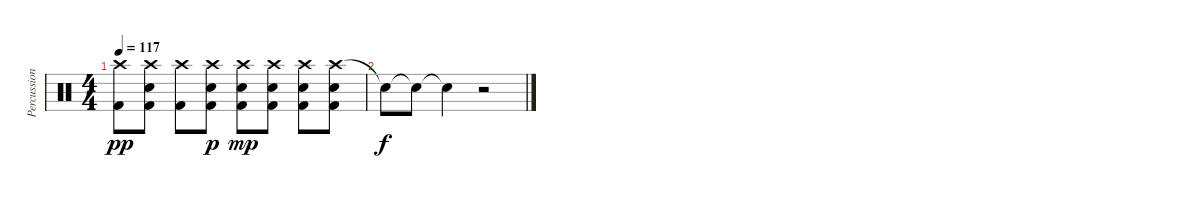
\track ("Percussioni" "Percussion") {instrument percussion}
\staff {score}
\articulation defaults
\ts (4 4)
\tempo 117
\clef neutral
\ks c
("Crash high (hit)" "Kick (hit) 2").8{dy pp} ("Crash high (hit)" "Electric Snare (hit)" "Kick (hit) 2").8 ("Crash high (hit)" "Kick (hit) 2").8 ("Crash high (hit)" "Electric Snare (hit)" "Kick (hit) 2").8{dy p} ("Crash high (hit)" "Electric Snare (hit)" "Kick (hit) 2").8{dy mp} ("Crash high (hit)" "Electric Snare (hit)" "Kick (hit) 2").8 ("Crash high (hit)" "Electric Snare (hit)" "Kick (hit) 2").8 ("Crash high (hit)" "Electric Snare (hit)" "Kick (hit) 2").8 |
"Snare (hit)"{t}.8{dy f} "Snare (hit)"{t}.8 "Snare (hit)"{t}.4 r.2
